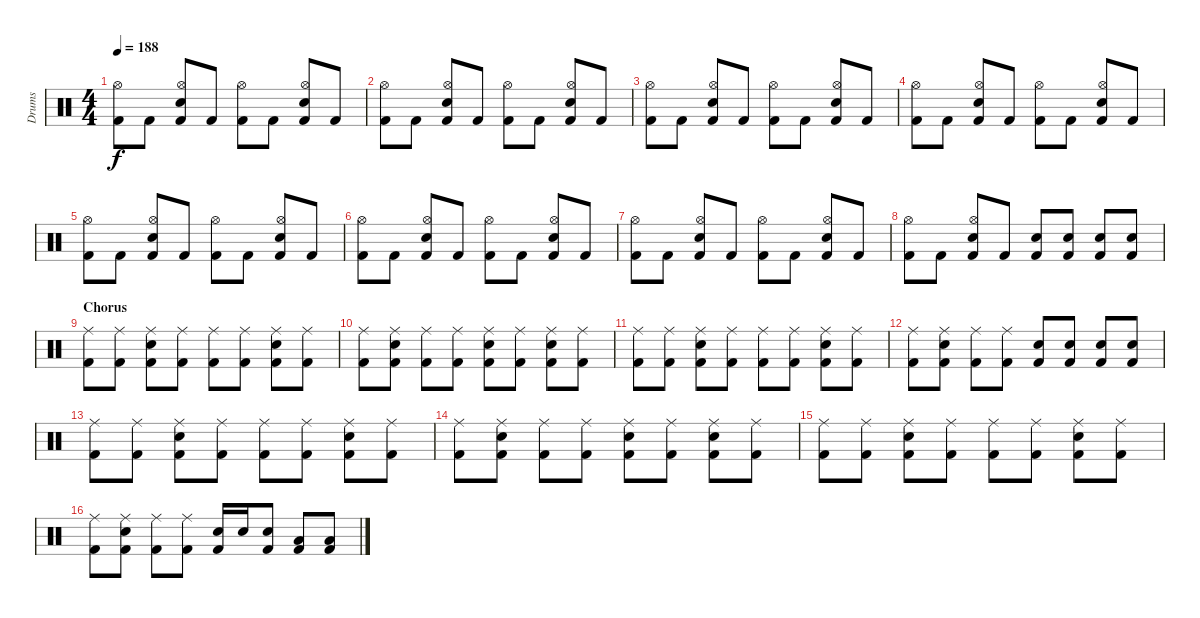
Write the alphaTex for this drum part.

\track ("Drums" "Drums") {instrument percussion}
\staff {score}
\articulation defaults
\ts (4 4)
\tempo 188
\clef neutral
\ks c
("Kick (hit) 2" "Hi-Hat (open)").8{dy f} "Kick (hit) 2".8 ("Kick (hit) 2" "Snare (hit) 2" "Hi-Hat (open)").8 "Kick (hit) 2".8 ("Kick (hit) 2" "Hi-Hat (open)").8 "Kick (hit) 2".8 ("Kick (hit) 2" "Snare (hit) 2" "Hi-Hat (open)").8 "Kick (hit) 2".8 |
("Kick (hit) 2" "Hi-Hat (open)").8 "Kick (hit) 2".8 ("Kick (hit) 2" "Snare (hit) 2" "Hi-Hat (open)").8 "Kick (hit) 2".8 ("Kick (hit) 2" "Hi-Hat (open)").8 "Kick (hit) 2".8 ("Kick (hit) 2" "Snare (hit) 2" "Hi-Hat (open)").8 "Kick (hit) 2".8 |
("Kick (hit) 2" "Hi-Hat (open)").8 "Kick (hit) 2".8 ("Kick (hit) 2" "Snare (hit) 2" "Hi-Hat (open)").8 "Kick (hit) 2".8 ("Kick (hit) 2" "Hi-Hat (open)").8 "Kick (hit) 2".8 ("Kick (hit) 2" "Snare (hit) 2" "Hi-Hat (open)").8 "Kick (hit) 2".8 |
("Kick (hit) 2" "Hi-Hat (open)").8 "Kick (hit) 2".8 ("Kick (hit) 2" "Snare (hit) 2" "Hi-Hat (open)").8 "Kick (hit) 2".8 ("Kick (hit) 2" "Hi-Hat (open)").8 "Kick (hit) 2".8 ("Kick (hit) 2" "Snare (hit) 2" "Hi-Hat (open)").8 "Kick (hit) 2".8 |
("Kick (hit) 2" "Hi-Hat (open)").8 "Kick (hit) 2".8 ("Kick (hit) 2" "Snare (hit) 2" "Hi-Hat (open)").8 "Kick (hit) 2".8 ("Kick (hit) 2" "Hi-Hat (open)").8 "Kick (hit) 2".8 ("Kick (hit) 2" "Snare (hit) 2" "Hi-Hat (open)").8 "Kick (hit) 2".8 |
("Kick (hit) 2" "Hi-Hat (open)").8 "Kick (hit) 2".8 ("Kick (hit) 2" "Snare (hit) 2" "Hi-Hat (open)").8 "Kick (hit) 2".8 ("Kick (hit) 2" "Hi-Hat (open)").8 "Kick (hit) 2".8 ("Kick (hit) 2" "Snare (hit) 2" "Hi-Hat (open)").8 "Kick (hit) 2".8 |
("Kick (hit) 2" "Hi-Hat (open)").8 "Kick (hit) 2".8 ("Kick (hit) 2" "Snare (hit) 2" "Hi-Hat (open)").8 "Kick (hit) 2".8 ("Kick (hit) 2" "Hi-Hat (open)").8 "Kick (hit) 2".8 ("Kick (hit) 2" "Snare (hit) 2" "Hi-Hat (open)").8 "Kick (hit) 2".8 |
("Kick (hit) 2" "Hi-Hat (open)").8 "Kick (hit) 2".8 ("Kick (hit) 2" "Snare (hit) 2" "Hi-Hat (open)").8 "Kick (hit) 2".8 ("Kick (hit) 2" "Snare (hit) 2").8 ("Kick (hit) 2" "Snare (hit) 2").8 ("Kick (hit) 2" "Snare (hit) 2").8 ("Kick (hit) 2" "Snare (hit) 2").8 |
\section ("" "Chorus")
("Kick (hit) 2" "Ride (middle)").8 ("Kick (hit) 2" "Ride (middle)").8 ("Kick (hit) 2" "Snare (hit) 2" "Ride (middle)").8 ("Kick (hit) 2" "Ride (middle)").8 ("Kick (hit) 2" "Ride (middle)").8 ("Kick (hit) 2" "Ride (middle)").8 ("Kick (hit) 2" "Snare (hit) 2" "Ride (middle)").8 ("Kick (hit) 2" "Ride (middle)").8 |
("Kick (hit) 2" "Ride (middle)").8 ("Kick (hit) 2" "Snare (hit) 2" "Ride (middle)").8 ("Kick (hit) 2" "Ride (middle)").8 ("Kick (hit) 2" "Ride (middle)").8 ("Kick (hit) 2" "Snare (hit) 2" "Ride (middle)").8 ("Kick (hit) 2" "Ride (middle)").8 ("Kick (hit) 2" "Snare (hit) 2" "Ride (middle)").8 ("Kick (hit) 2" "Ride (middle)").8 |
("Kick (hit) 2" "Ride (middle)").8 ("Kick (hit) 2" "Ride (middle)").8 ("Kick (hit) 2" "Snare (hit) 2" "Ride (middle)").8 ("Kick (hit) 2" "Ride (middle)").8 ("Kick (hit) 2" "Ride (middle)").8 ("Kick (hit) 2" "Ride (middle)").8 ("Kick (hit) 2" "Snare (hit) 2" "Ride (middle)").8 ("Kick (hit) 2" "Ride (middle)").8 |
("Kick (hit) 2" "Ride (middle)").8 ("Kick (hit) 2" "Snare (hit) 2" "Ride (middle)").8 ("Kick (hit) 2" "Ride (middle)").8 ("Kick (hit) 2" "Ride (middle)").8 ("Kick (hit) 2" "Snare (hit) 2").8 ("Kick (hit) 2" "Snare (hit) 2").8 ("Kick (hit) 2" "Snare (hit) 2").8 ("Kick (hit) 2" "Snare (hit) 2").8 |
("Kick (hit) 2" "Ride (middle)").8 ("Kick (hit) 2" "Ride (middle)").8 ("Kick (hit) 2" "Snare (hit) 2" "Ride (middle)").8 ("Kick (hit) 2" "Ride (middle)").8 ("Kick (hit) 2" "Ride (middle)").8 ("Kick (hit) 2" "Ride (middle)").8 ("Kick (hit) 2" "Snare (hit) 2" "Ride (middle)").8 ("Kick (hit) 2" "Ride (middle)").8 |
("Kick (hit) 2" "Ride (middle)").8 ("Kick (hit) 2" "Snare (hit) 2" "Ride (middle)").8 ("Kick (hit) 2" "Ride (middle)").8 ("Kick (hit) 2" "Ride (middle)").8 ("Kick (hit) 2" "Snare (hit) 2" "Ride (middle)").8 ("Kick (hit) 2" "Ride (middle)").8 ("Kick (hit) 2" "Snare (hit) 2" "Ride (middle)").8 ("Kick (hit) 2" "Ride (middle)").8 |
("Kick (hit) 2" "Ride (middle)").8 ("Kick (hit) 2" "Ride (middle)").8 ("Kick (hit) 2" "Snare (hit) 2" "Ride (middle)").8 ("Kick (hit) 2" "Ride (middle)").8 ("Kick (hit) 2" "Ride (middle)").8 ("Kick (hit) 2" "Ride (middle)").8 ("Kick (hit) 2" "Snare (hit) 2" "Ride (middle)").8 ("Kick (hit) 2" "Ride (middle)").8 |
("Kick (hit) 2" "Ride (middle)").8 ("Kick (hit) 2" "Snare (hit) 2" "Ride (middle)").8 ("Kick (hit) 2" "Ride (middle)").8 ("Kick (hit) 2" "Ride (middle)").8 ("Kick (hit) 2" "Snare (hit) 2").16 "Snare (hit) 2".16 ("Kick (hit) 2" "Snare (hit) 2").8 ("Kick (hit) 2" "Low Tom (hit)").8 ("Kick (hit) 2" "Low Tom (hit)").8
